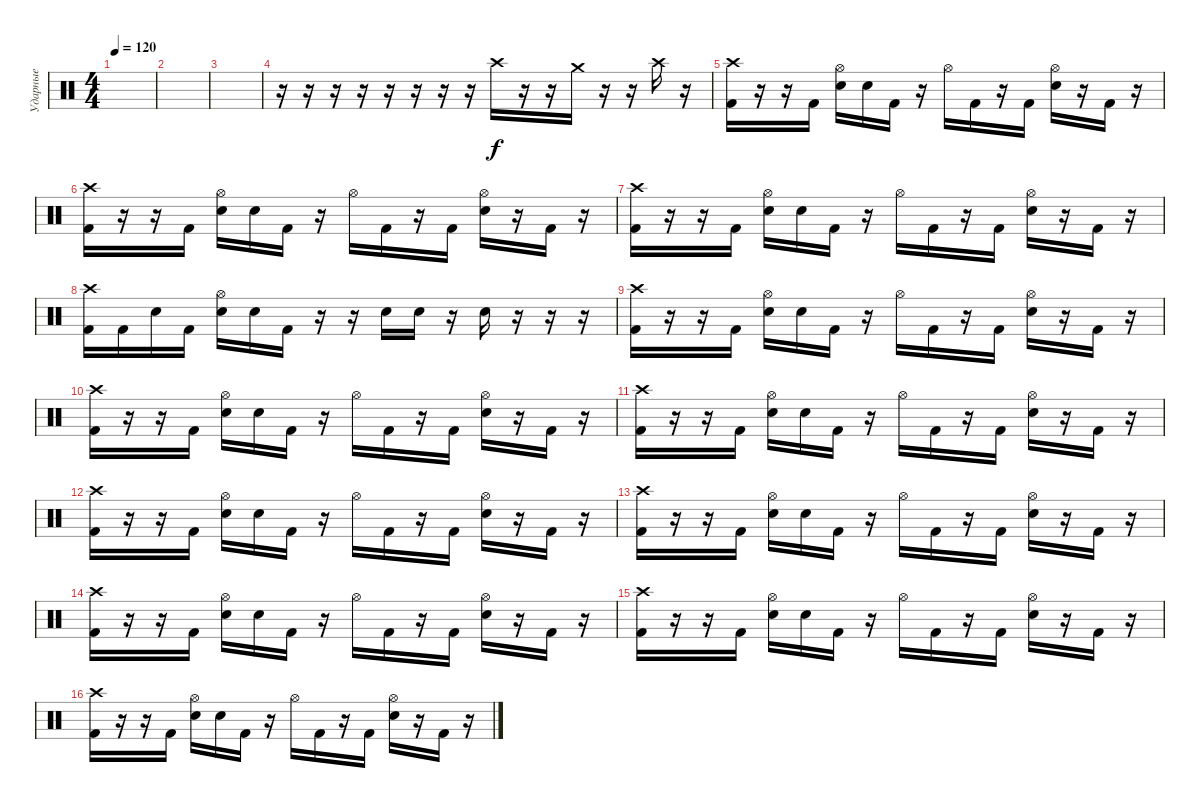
\track ("Ударные" "Ударные") {instrument percussion}
\staff {score}
\articulation defaults
\ts (4 4)
\tempo 120
\clef neutral
\ks c
|
|
|
r.16 r.16 r.16 r.16 r.16 r.16 r.16 r.16 "Crash high (hit)".16 r.16 r.16 "Crash medium (hit)".16 r.16 r.16 "Crash high (hit)".16 r.16 |
("Crash high (hit)" "Kick (hit) 2").16{dy f} r.16 r.16 "Kick (hit) 2".16 ("Hi-Hat (open)" "Electric Snare (hit)").16 "Electric Snare (hit)".16 "Kick (hit) 2".16 r.16 "Hi-Hat (open)".16 "Kick (hit) 2".16 r.16 "Kick (hit) 2".16 ("Hi-Hat (open)" "Electric Snare (hit)").16 r.16 "Kick (hit) 2".16 r.16 |
("Crash high (hit)" "Kick (hit) 2").16 r.16 r.16 "Kick (hit) 2".16 ("Hi-Hat (open)" "Electric Snare (hit)").16 "Electric Snare (hit)".16 "Kick (hit) 2".16 r.16 "Hi-Hat (open)".16 "Kick (hit) 2".16 r.16 "Kick (hit) 2".16 ("Hi-Hat (open)" "Electric Snare (hit)").16 r.16 "Kick (hit) 2".16 r.16 |
("Crash high (hit)" "Kick (hit) 2").16 r.16 r.16 "Kick (hit) 2".16 ("Hi-Hat (open)" "Electric Snare (hit)").16 "Electric Snare (hit)".16 "Kick (hit) 2".16 r.16 "Hi-Hat (open)".16 "Kick (hit) 2".16 r.16 "Kick (hit) 2".16 ("Hi-Hat (open)" "Electric Snare (hit)").16 r.16 "Kick (hit) 2".16 r.16 |
("Crash high (hit)" "Kick (hit) 2").16 "Kick (hit) 2".16 "Electric Snare (hit)".16 "Kick (hit) 2".16 ("Hi-Hat (open)" "Electric Snare (hit)").16 "Electric Snare (hit)".16 "Kick (hit) 2".16 r.16 r.16 "Electric Snare (hit)".16 "Electric Snare (hit)".16 r.16 "Electric Snare (hit)".16 r.16 r.16 r.16 |
("Crash high (hit)" "Kick (hit) 2").16 r.16 r.16 "Kick (hit) 2".16 ("Hi-Hat (open)" "Electric Snare (hit)").16 "Electric Snare (hit)".16 "Kick (hit) 2".16 r.16 "Hi-Hat (open)".16 "Kick (hit) 2".16 r.16 "Kick (hit) 2".16 ("Hi-Hat (open)" "Electric Snare (hit)").16 r.16 "Kick (hit) 2".16 r.16 |
("Crash high (hit)" "Kick (hit) 2").16 r.16 r.16 "Kick (hit) 2".16 ("Hi-Hat (open)" "Electric Snare (hit)").16 "Electric Snare (hit)".16 "Kick (hit) 2".16 r.16 "Hi-Hat (open)".16 "Kick (hit) 2".16 r.16 "Kick (hit) 2".16 ("Hi-Hat (open)" "Electric Snare (hit)").16 r.16 "Kick (hit) 2".16 r.16 |
("Crash high (hit)" "Kick (hit) 2").16 r.16 r.16 "Kick (hit) 2".16 ("Hi-Hat (open)" "Electric Snare (hit)").16 "Electric Snare (hit)".16 "Kick (hit) 2".16 r.16 "Hi-Hat (open)".16 "Kick (hit) 2".16 r.16 "Kick (hit) 2".16 ("Hi-Hat (open)" "Electric Snare (hit)").16 r.16 "Kick (hit) 2".16 r.16 |
("Crash high (hit)" "Kick (hit) 2").16 r.16 r.16 "Kick (hit) 2".16 ("Hi-Hat (open)" "Electric Snare (hit)").16 "Electric Snare (hit)".16 "Kick (hit) 2".16 r.16 "Hi-Hat (open)".16 "Kick (hit) 2".16 r.16 "Kick (hit) 2".16 ("Hi-Hat (open)" "Electric Snare (hit)").16 r.16 "Kick (hit) 2".16 r.16 |
("Crash high (hit)" "Kick (hit) 2").16 r.16 r.16 "Kick (hit) 2".16 ("Hi-Hat (open)" "Electric Snare (hit)").16 "Electric Snare (hit)".16 "Kick (hit) 2".16 r.16 "Hi-Hat (open)".16 "Kick (hit) 2".16 r.16 "Kick (hit) 2".16 ("Hi-Hat (open)" "Electric Snare (hit)").16 r.16 "Kick (hit) 2".16 r.16 |
("Crash high (hit)" "Kick (hit) 2").16 r.16 r.16 "Kick (hit) 2".16 ("Hi-Hat (open)" "Electric Snare (hit)").16 "Electric Snare (hit)".16 "Kick (hit) 2".16 r.16 "Hi-Hat (open)".16 "Kick (hit) 2".16 r.16 "Kick (hit) 2".16 ("Hi-Hat (open)" "Electric Snare (hit)").16 r.16 "Kick (hit) 2".16 r.16 |
("Crash high (hit)" "Kick (hit) 2").16 r.16 r.16 "Kick (hit) 2".16 ("Hi-Hat (open)" "Electric Snare (hit)").16 "Electric Snare (hit)".16 "Kick (hit) 2".16 r.16 "Hi-Hat (open)".16 "Kick (hit) 2".16 r.16 "Kick (hit) 2".16 ("Hi-Hat (open)" "Electric Snare (hit)").16 r.16 "Kick (hit) 2".16 r.16 |
("Crash high (hit)" "Kick (hit) 2").16 r.16 r.16 "Kick (hit) 2".16 ("Hi-Hat (open)" "Electric Snare (hit)").16 "Electric Snare (hit)".16 "Kick (hit) 2".16 r.16 "Hi-Hat (open)".16 "Kick (hit) 2".16 r.16 "Kick (hit) 2".16 ("Hi-Hat (open)" "Electric Snare (hit)").16 r.16 "Kick (hit) 2".16 r.16
